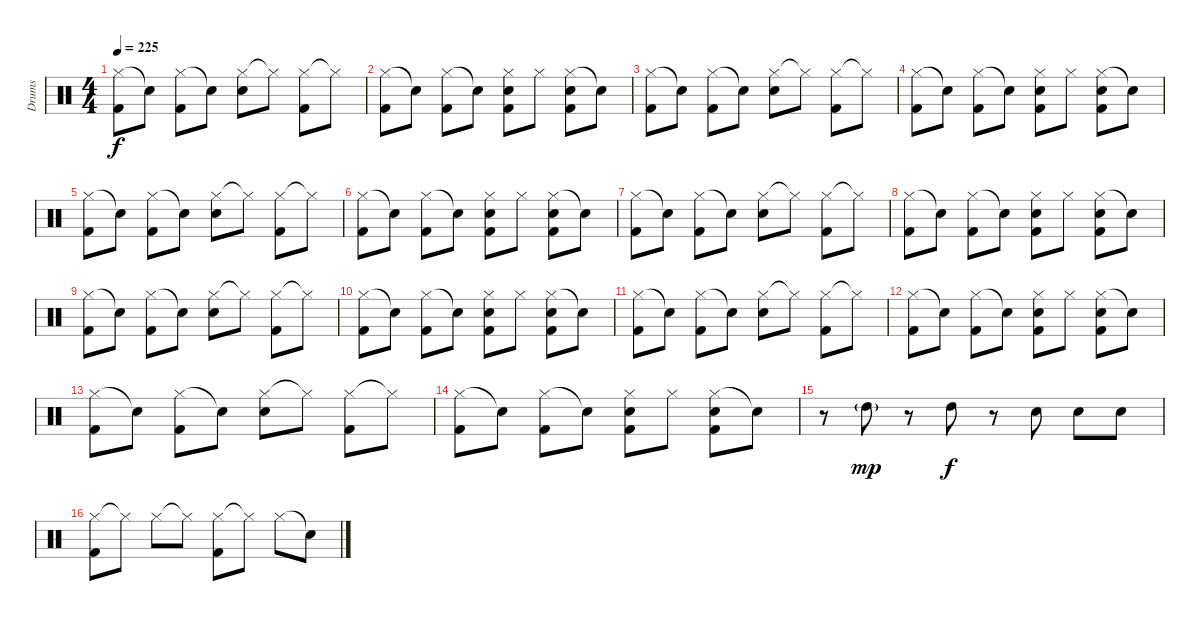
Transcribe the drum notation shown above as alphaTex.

\track ("Drums" "Drums") {instrument percussion}
\staff {score}
\articulation defaults
\ts (4 4)
\tempo 225
\clef neutral
\ks c
("Hi-Hat (closed)" "Kick (hit) 2").8{dy f} "Snare (hit)"{t}.8 ("Hi-Hat (closed)" "Kick (hit) 2").8 "Snare (hit)"{t}.8 ("Hi-Hat (closed)" "Snare (hit) 2").8 "Hi-Hat (closed)"{t}.8 ("Hi-Hat (closed)" "Kick (hit) 2").8 "Hi-Hat (closed)"{t}.8 |
("Hi-Hat (closed)" "Kick (hit) 2").8 "Snare (hit)"{t}.8 ("Hi-Hat (closed)" "Kick (hit) 2").8 "Snare (hit)"{t}.8 ("Hi-Hat (closed)" "Snare (hit) 2" "Kick (hit) 2").8 "Hi-Hat (closed)".8 ("Hi-Hat (closed)" "Snare (hit) 2" "Kick (hit) 2").8 "Snare (hit)"{t}.8 |
("Hi-Hat (closed)" "Kick (hit) 2").8 "Snare (hit)"{t}.8 ("Hi-Hat (closed)" "Kick (hit) 2").8 "Snare (hit)"{t}.8 ("Hi-Hat (closed)" "Snare (hit) 2").8 "Hi-Hat (closed)"{t}.8 ("Hi-Hat (closed)" "Kick (hit) 2").8 "Hi-Hat (closed)"{t}.8 |
("Hi-Hat (closed)" "Kick (hit) 2").8 "Snare (hit)"{t}.8 ("Hi-Hat (closed)" "Kick (hit) 2").8 "Snare (hit)"{t}.8 ("Hi-Hat (closed)" "Snare (hit) 2" "Kick (hit) 2").8 "Hi-Hat (closed)".8 ("Hi-Hat (closed)" "Snare (hit) 2" "Kick (hit) 2").8 "Snare (hit)"{t}.8 |
("Hi-Hat (closed)" "Kick (hit) 2").8 "Snare (hit)"{t}.8 ("Hi-Hat (closed)" "Kick (hit) 2").8 "Snare (hit)"{t}.8 ("Hi-Hat (closed)" "Snare (hit) 2").8 "Hi-Hat (closed)"{t}.8 ("Hi-Hat (closed)" "Kick (hit) 2").8 "Hi-Hat (closed)"{t}.8 |
("Hi-Hat (closed)" "Kick (hit) 2").8 "Snare (hit)"{t}.8 ("Hi-Hat (closed)" "Kick (hit) 2").8 "Snare (hit)"{t}.8 ("Hi-Hat (closed)" "Snare (hit) 2" "Kick (hit) 2").8 "Hi-Hat (closed)".8 ("Hi-Hat (closed)" "Snare (hit) 2" "Kick (hit) 2").8 "Snare (hit)"{t}.8 |
("Hi-Hat (closed)" "Kick (hit) 2").8 "Snare (hit)"{t}.8 ("Hi-Hat (closed)" "Kick (hit) 2").8 "Snare (hit)"{t}.8 ("Hi-Hat (closed)" "Snare (hit) 2").8 "Hi-Hat (closed)"{t}.8 ("Hi-Hat (closed)" "Kick (hit) 2").8 "Hi-Hat (closed)"{t}.8 |
("Hi-Hat (closed)" "Kick (hit) 2").8 "Snare (hit)"{t}.8 ("Hi-Hat (closed)" "Kick (hit) 2").8 "Snare (hit)"{t}.8 ("Hi-Hat (closed)" "Snare (hit) 2" "Kick (hit) 2").8 "Hi-Hat (closed)".8 ("Hi-Hat (closed)" "Snare (hit) 2" "Kick (hit) 2").8 "Snare (hit)"{t}.8 |
("Hi-Hat (closed)" "Kick (hit) 2").8 "Snare (hit)"{t}.8 ("Hi-Hat (closed)" "Kick (hit) 2").8 "Snare (hit)"{t}.8 ("Hi-Hat (closed)" "Snare (hit) 2").8 "Hi-Hat (closed)"{t}.8 ("Hi-Hat (closed)" "Kick (hit) 2").8 "Hi-Hat (closed)"{t}.8 |
("Hi-Hat (closed)" "Kick (hit) 2").8 "Snare (hit)"{t}.8 ("Hi-Hat (closed)" "Kick (hit) 2").8 "Snare (hit)"{t}.8 ("Hi-Hat (closed)" "Snare (hit) 2" "Kick (hit) 2").8 "Hi-Hat (closed)".8 ("Hi-Hat (closed)" "Snare (hit) 2" "Kick (hit) 2").8 "Snare (hit)"{t}.8 |
("Hi-Hat (closed)" "Kick (hit) 2").8 "Snare (hit)"{t}.8 ("Hi-Hat (closed)" "Kick (hit) 2").8 "Snare (hit)"{t}.8 ("Hi-Hat (closed)" "Snare (hit) 2").8 "Hi-Hat (closed)"{t}.8 ("Hi-Hat (closed)" "Kick (hit) 2").8 "Hi-Hat (closed)"{t}.8 |
("Hi-Hat (closed)" "Kick (hit) 2").8 "Snare (hit)"{t}.8 ("Hi-Hat (closed)" "Kick (hit) 2").8 "Snare (hit)"{t}.8 ("Hi-Hat (closed)" "Snare (hit) 2" "Kick (hit) 2").8 "Hi-Hat (closed)".8 ("Hi-Hat (closed)" "Snare (hit) 2" "Kick (hit) 2").8 "Snare (hit)"{t}.8 |
("Hi-Hat (closed)" "Kick (hit) 2").8 "Snare (hit)"{t}.8 ("Hi-Hat (closed)" "Kick (hit) 2").8 "Snare (hit)"{t}.8 ("Hi-Hat (closed)" "Snare (hit) 2").8 "Hi-Hat (closed)"{t}.8 ("Hi-Hat (closed)" "Kick (hit) 2").8 "Hi-Hat (closed)"{t}.8 |
("Hi-Hat (closed)" "Kick (hit) 2").8 "Snare (hit)"{t}.8 ("Hi-Hat (closed)" "Kick (hit) 2").8 "Snare (hit)"{t}.8 ("Hi-Hat (closed)" "Snare (hit) 2" "Kick (hit) 2").8 "Hi-Hat (closed)".8 ("Hi-Hat (closed)" "Snare (hit) 2" "Kick (hit) 2").8 "Snare (hit)"{t}.8 |
r.8 "High Tom (hit)"{g}.8{dy mp} r.8 "High Tom (hit)".8{dy f} r.8 "Snare (hit) 2".8 "Snare (hit) 2".8 "Snare (hit) 2".8 |
("Hi-Hat (closed)" "Kick (hit) 2").8 "Hi-Hat (closed)"{t}.8 "Hi-Hat (closed)".8 "Hi-Hat (closed)"{t}.8 ("Hi-Hat (closed)" "Kick (hit) 2").8 "Hi-Hat (closed)"{t}.8 "Hi-Hat (closed)".8 "Snare (hit)"{t}.8
